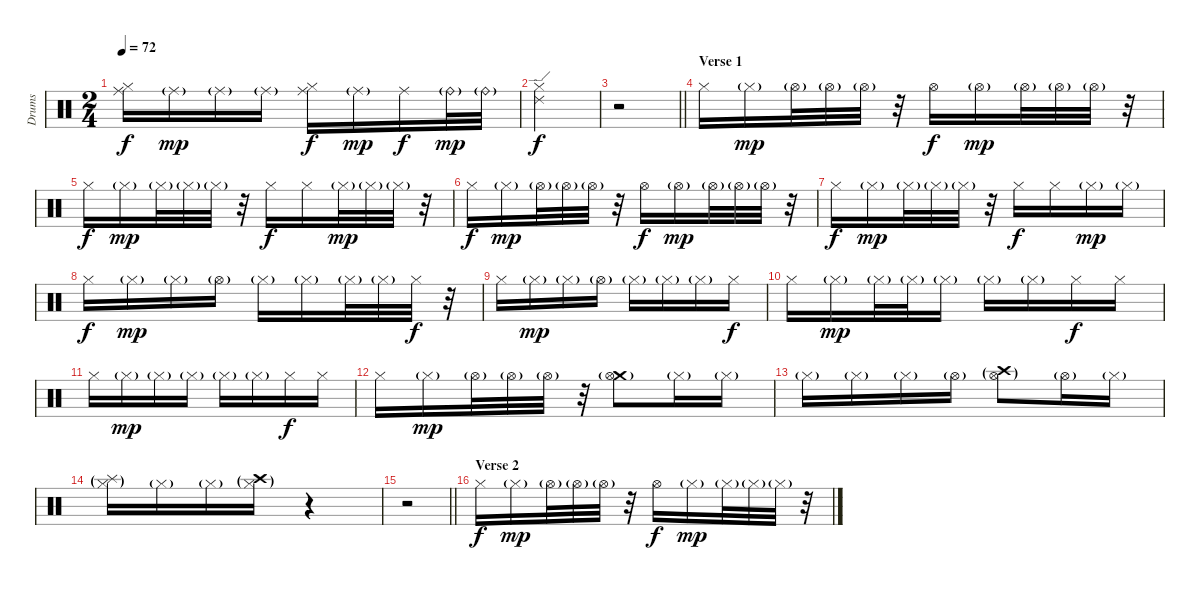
\track ("Drums" "Drums") {instrument percussion}
\staff {score}
\articulation defaults
\ts (2 4)
\tempo 72
\clef neutral
\ks c
("Ride (middle)" "Hi-Hat (closed)").16{dy f} "Ride (middle)"{g}.16{dy mp} "Ride (middle)"{g}.16 "Ride (middle)"{g}.16 ("Ride (middle)" "Hi-Hat (closed)").16{dy f} "Ride (middle)"{g}.16{dy mp} "Ride (middle)".16{dy f} "Ride (bell)"{g}.32{dy mp} "Ride (bell)"{g}.32 |
("Ride (edge) 2" "Hi-Hat (closed)").2{dy f} |
\barLineRight lightlight
r.2 |
\section ("" "Verse 1")
"Hi-Hat (closed)".16 "Hi-Hat (closed)"{g}.16{dy mp} "Hi-Hat (open)"{g}.32 "Hi-Hat (open)"{g}.32 "Hi-Hat (open)"{g}.32 r.32 "Hi-Hat (open)".16{dy f} "Hi-Hat (open)"{g}.16{dy mp} "Hi-Hat (open)"{g}.32 "Hi-Hat (open)"{g}.32 "Hi-Hat (open)"{g}.32 r.32 |
"Hi-Hat (closed)".16{dy f} "Hi-Hat (closed)"{g}.16{dy mp} "Hi-Hat (closed)"{g}.32 "Hi-Hat (closed)"{g}.32 "Hi-Hat (closed)"{g}.32 r.32 "Hi-Hat (closed)".16{dy f} "Hi-Hat (closed)".16 "Hi-Hat (closed)"{g}.32{dy mp} "Hi-Hat (closed)"{g}.32 "Hi-Hat (closed)"{g}.32 r.32 |
"Hi-Hat (closed)".16{dy f} "Hi-Hat (closed)"{g}.16{dy mp} "Hi-Hat (open)"{g}.32 "Hi-Hat (open)"{g}.32 "Hi-Hat (open)"{g}.32 r.32 "Hi-Hat (open)".16{dy f} "Hi-Hat (open)"{g}.16{dy mp} "Hi-Hat (open)"{g}.32 "Hi-Hat (open)"{g}.32 "Hi-Hat (open)"{g}.32 r.32 |
"Hi-Hat (closed)".16{dy f} "Hi-Hat (closed)"{g}.16{dy mp} "Hi-Hat (closed)"{g}.32 "Hi-Hat (closed)"{g}.32 "Hi-Hat (closed)"{g}.32 r.32 "Hi-Hat (closed)".16{dy f} "Hi-Hat (closed)".16 "Hi-Hat (closed)"{g}.16{dy mp} "Hi-Hat (closed)"{g}.16 |
"Hi-Hat (closed)".16{dy f} "Hi-Hat (closed)"{g}.16{dy mp} "Hi-Hat (closed)"{g}.16 "Hi-Hat (open)"{g}.16 "Hi-Hat (closed)"{g}.16 "Hi-Hat (closed)"{g}.16 "Hi-Hat (closed)"{g}.32 "Hi-Hat (closed)"{g}.32 "Hi-Hat (closed)".32{dy f} r.32 |
"Hi-Hat (closed)".16 "Hi-Hat (closed)"{g}.16{dy mp} "Hi-Hat (closed)"{g}.16 "Hi-Hat (open)"{g}.16 "Hi-Hat (closed)"{g}.16 "Hi-Hat (closed)"{g}.16 "Hi-Hat (closed)"{g}.16 "Hi-Hat (closed)".16{dy f} |
"Hi-Hat (closed)".16 "Hi-Hat (closed)"{g}.16{dy mp} "Hi-Hat (closed)"{g}.32 "Hi-Hat (closed)"{g}.32 "Hi-Hat (closed)"{g}.16 "Hi-Hat (closed)"{g}.16 "Hi-Hat (closed)"{g}.16 "Hi-Hat (closed)".16{dy f} "Hi-Hat (closed)".16 |
"Hi-Hat (closed)".16 "Hi-Hat (closed)"{g}.16{dy mp} "Hi-Hat (closed)"{g}.16 "Hi-Hat (closed)"{g}.16 "Hi-Hat (closed)"{g}.16 "Hi-Hat (closed)"{g}.16 "Hi-Hat (closed)".16{dy f} "Hi-Hat (closed)".16 |
"Hi-Hat (closed)".16 "Hi-Hat (closed)"{g}.16{dy mp} "Hi-Hat (open)"{g}.32 "Hi-Hat (open)"{g}.32 "Hi-Hat (open)"{g}.32 r.32 ("Crash medium (hit)"{g} "Hi-Hat (open)"{g}).8 "Hi-Hat (closed)"{g}.16 "Hi-Hat (closed)"{g}.16 |
"Hi-Hat (closed)"{g}.16 "Hi-Hat (closed)"{g}.16 "Hi-Hat (closed)"{g}.16 "Hi-Hat (open)"{g}.16 ("Crash high (hit)"{g} "Hi-Hat (open)"{g}).8 "Hi-Hat (open)"{g}.16 "Hi-Hat (closed)"{g}.16 |
("Splash (hit)"{g} "Hi-Hat (closed)"{g}).16 "Hi-Hat (closed)"{g}.16 "Hi-Hat (closed)"{g}.16 ("Crash high (hit)"{g} "Hi-Hat (closed)"{g}).16 r.4 |
\barLineRight lightlight
r.2 |
\section ("" "Verse 2")
"Hi-Hat (closed)".16{dy f} "Hi-Hat (closed)"{g}.16{dy mp} "Hi-Hat (open)"{g}.32 "Hi-Hat (open)"{g}.32 "Hi-Hat (open)"{g}.32 r.32 "Hi-Hat (open)".16{dy f} "Hi-Hat (closed)"{g}.16{dy mp} "Hi-Hat (closed)"{g}.32 "Hi-Hat (closed)"{g}.32 "Hi-Hat (closed)"{g}.32 r.32
